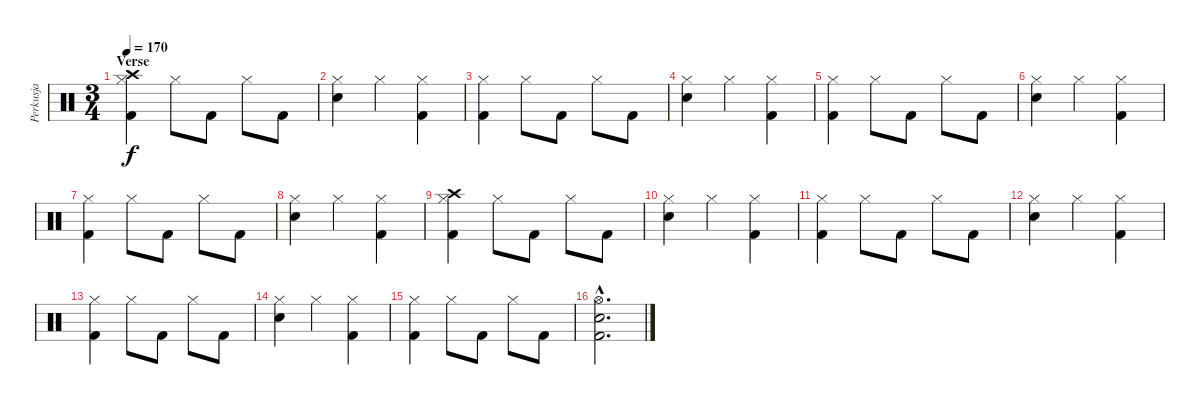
\track ("Perkusja" "Perkusja") {instrument percussion}
\staff {score}
\articulation defaults
\ts (3 4)
\section ("" "Verse")
\tempo 170
\clef neutral
\ks c
("Kick (hit) 2" "Hi-Hat (closed)" "Crash high (hit)").4{dy f} "Hi-Hat (closed)".8 "Kick (hit) 2".8 "Hi-Hat (closed)".8 "Kick (hit) 2".8 |
("Snare (hit) 2" "Hi-Hat (closed)").4 "Hi-Hat (closed)".4 ("Kick (hit) 2" "Hi-Hat (closed)").4 |
("Kick (hit) 2" "Hi-Hat (closed)").4 "Hi-Hat (closed)".8 "Kick (hit) 2".8 "Hi-Hat (closed)".8 "Kick (hit) 2".8 |
("Snare (hit) 2" "Hi-Hat (closed)").4 "Hi-Hat (closed)".4 ("Kick (hit) 2" "Hi-Hat (closed)").4 |
("Kick (hit) 2" "Hi-Hat (closed)").4 "Hi-Hat (closed)".8 "Kick (hit) 2".8 "Hi-Hat (closed)".8 "Kick (hit) 2".8 |
("Snare (hit) 2" "Hi-Hat (closed)").4 "Hi-Hat (closed)".4 ("Kick (hit) 2" "Hi-Hat (closed)").4 |
("Kick (hit) 2" "Hi-Hat (closed)").4 "Hi-Hat (closed)".8 "Kick (hit) 2".8 "Hi-Hat (closed)".8 "Kick (hit) 2".8 |
("Snare (hit) 2" "Hi-Hat (closed)").4 "Hi-Hat (closed)".4 ("Kick (hit) 2" "Hi-Hat (closed)").4 |
("Kick (hit) 2" "Hi-Hat (closed)" "Crash high (hit)").4 "Hi-Hat (closed)".8 "Kick (hit) 2".8 "Hi-Hat (closed)".8 "Kick (hit) 2".8 |
("Snare (hit) 2" "Hi-Hat (closed)").4 "Hi-Hat (closed)".4 ("Kick (hit) 2" "Hi-Hat (closed)").4 |
("Kick (hit) 2" "Hi-Hat (closed)").4 "Hi-Hat (closed)".8 "Kick (hit) 2".8 "Hi-Hat (closed)".8 "Kick (hit) 2".8 |
("Snare (hit) 2" "Hi-Hat (closed)").4 "Hi-Hat (closed)".4 ("Kick (hit) 2" "Hi-Hat (closed)").4 |
("Kick (hit) 2" "Hi-Hat (closed)").4 "Hi-Hat (closed)".8 "Kick (hit) 2".8 "Hi-Hat (closed)".8 "Kick (hit) 2".8 |
("Snare (hit) 2" "Hi-Hat (closed)").4 "Hi-Hat (closed)".4 ("Kick (hit) 2" "Hi-Hat (closed)").4 |
("Kick (hit) 2" "Hi-Hat (closed)").4 "Hi-Hat (closed)".8 "Kick (hit) 2".8 "Hi-Hat (closed)".8 "Kick (hit) 2".8 |
("Snare (hit) 2"{hac} "Hi-Hat (open)"{hac} "Kick (hit) 2"{hac}).2{d}
